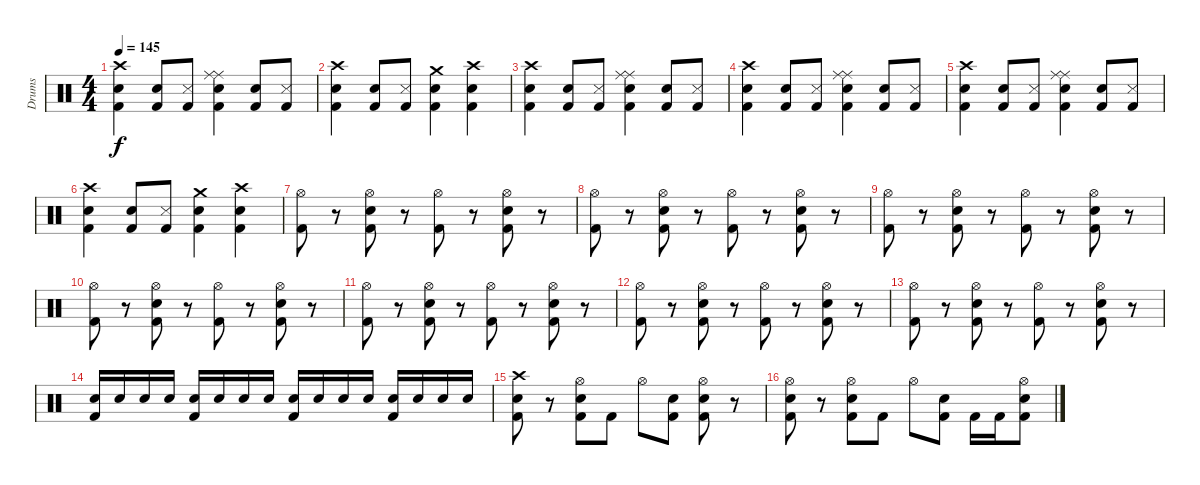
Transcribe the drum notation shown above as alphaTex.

\track ("Drums" "Drums") {instrument percussion}
\staff {score}
\articulation defaults
\ts (4 4)
\tempo 145
\clef neutral
\ks c
("Crash high (hit)" "Snare (hit) 2" "Kick (hit) 2").4{dy f} ("Snare (hit) 2" "Kick (hit) 2").8 ("Snare (side stick) 3" "Kick (hit) 2").8 ("Ride (middle)" "Ride (middle)" "Snare (hit) 2" "Kick (hit) 2").4 ("Snare (hit) 2" "Kick (hit) 2").8 ("Snare (side stick) 3" "Kick (hit) 2").8 |
("Crash high (hit)" "Snare (hit) 2" "Kick (hit) 2").4 ("Snare (hit) 2" "Kick (hit) 2").8 ("Snare (side stick) 3" "Kick (hit) 2").8 ("Crash medium (hit)" "Snare (hit) 2" "Kick (hit) 2").4 ("Crash high (hit)" "Snare (hit) 2" "Kick (hit) 2").4 |
("Crash high (hit)" "Snare (hit) 2" "Kick (hit) 2").4 ("Snare (hit) 2" "Kick (hit) 2").8 ("Snare (side stick) 3" "Kick (hit) 2").8 ("Ride (middle)" "Ride (middle)" "Snare (hit) 2" "Kick (hit) 2").4 ("Snare (hit) 2" "Kick (hit) 2").8 ("Snare (side stick) 3" "Kick (hit) 2").8 |
("Crash high (hit)" "Snare (hit) 2" "Kick (hit) 2").4 ("Snare (hit) 2" "Kick (hit) 2").8 ("Snare (side stick) 3" "Kick (hit) 2").8 ("Ride (middle)" "Ride (middle)" "Snare (hit) 2" "Kick (hit) 2").4 ("Snare (hit) 2" "Kick (hit) 2").8 ("Snare (side stick) 3" "Kick (hit) 2").8 |
("Crash high (hit)" "Snare (hit) 2" "Kick (hit) 2").4 ("Snare (hit) 2" "Kick (hit) 2").8 ("Snare (side stick) 3" "Kick (hit) 2").8 ("Ride (middle)" "Ride (middle)" "Snare (hit) 2" "Kick (hit) 2").4 ("Snare (hit) 2" "Kick (hit) 2").8 ("Snare (side stick) 3" "Kick (hit) 2").8 |
("Crash high (hit)" "Snare (hit) 2" "Kick (hit) 2").4 ("Snare (hit) 2" "Kick (hit) 2").8 ("Snare (side stick) 3" "Kick (hit) 2").8 ("Crash medium (hit)" "Snare (hit) 2" "Kick (hit) 2").4 ("Crash high (hit)" "Snare (hit) 2" "Kick (hit) 2").4 |
("Hi-Hat (open)" "Kick (hit) 2").8 r.8 ("Snare (hit) 2" "Hi-Hat (open)" "Kick (hit) 2").8 r.8 ("Hi-Hat (open)" "Kick (hit) 2").8 r.8 ("Snare (hit) 2" "Hi-Hat (open)" "Kick (hit) 2").8 r.8 |
("Hi-Hat (open)" "Kick (hit) 2").8 r.8 ("Snare (hit) 2" "Hi-Hat (open)" "Kick (hit) 2").8 r.8 ("Hi-Hat (open)" "Kick (hit) 2").8 r.8 ("Snare (hit) 2" "Hi-Hat (open)" "Kick (hit) 2").8 r.8 |
("Hi-Hat (open)" "Kick (hit) 2").8 r.8 ("Snare (hit) 2" "Hi-Hat (open)" "Kick (hit) 2").8 r.8 ("Hi-Hat (open)" "Kick (hit) 2").8 r.8 ("Snare (hit) 2" "Hi-Hat (open)" "Kick (hit) 2").8 r.8 |
("Hi-Hat (open)" "Kick (hit) 2").8 r.8 ("Snare (hit) 2" "Hi-Hat (open)" "Kick (hit) 2").8 r.8 ("Hi-Hat (open)" "Kick (hit) 2").8 r.8 ("Snare (hit) 2" "Hi-Hat (open)" "Kick (hit) 2").8 r.8 |
("Hi-Hat (open)" "Kick (hit) 2").8 r.8 ("Snare (hit) 2" "Hi-Hat (open)" "Kick (hit) 2").8 r.8 ("Hi-Hat (open)" "Kick (hit) 2").8 r.8 ("Snare (hit) 2" "Hi-Hat (open)" "Kick (hit) 2").8 r.8 |
("Hi-Hat (open)" "Kick (hit) 2").8 r.8 ("Snare (hit) 2" "Hi-Hat (open)" "Kick (hit) 2").8 r.8 ("Hi-Hat (open)" "Kick (hit) 2").8 r.8 ("Snare (hit) 2" "Hi-Hat (open)" "Kick (hit) 2").8 r.8 |
("Hi-Hat (open)" "Kick (hit) 2").8 r.8 ("Snare (hit) 2" "Hi-Hat (open)" "Kick (hit) 2").8 r.8 ("Hi-Hat (open)" "Kick (hit) 2").8 r.8 ("Snare (hit) 2" "Hi-Hat (open)" "Kick (hit) 2").8 r.8 |
("Electric Snare (hit)" "Kick (hit) 2").16 "Electric Snare (hit)".16 "Snare (hit) 2".16 "Snare (hit) 2".16 ("Electric Snare (hit)" "Kick (hit) 2").16 "Electric Snare (hit)".16 "Snare (hit) 2".16 "Snare (hit) 2".16 ("Electric Snare (hit)" "Kick (hit) 2").16 "Electric Snare (hit)".16 "Snare (hit) 2".16 "Snare (hit) 2".16 ("Electric Snare (hit)" "Kick (hit) 2").16 "Electric Snare (hit)".16 "Snare (hit) 2".16 "Snare (hit) 2".16 |
("Crash high (hit)" "Snare (hit) 2" "Kick (hit) 2").8 r.8 ("Snare (hit) 2" "Hi-Hat (open)" "Kick (hit) 2").8 "Kick (hit) 2".8 "Hi-Hat (open)".8 ("Snare (hit) 2" "Kick (hit) 2").8 ("Snare (hit) 2" "Hi-Hat (open)" "Kick (hit) 2").8 r.8 |
("Hi-Hat (open)" "Snare (hit) 2" "Kick (hit) 2").8 r.8 ("Snare (hit) 2" "Hi-Hat (open)" "Kick (hit) 2").8 "Kick (hit) 2".8 "Hi-Hat (open)".8 ("Snare (hit) 2" "Kick (hit) 2").8 "Kick (hit) 2".16 "Kick (hit) 2".16 ("Hi-Hat (open)" "Snare (hit) 2" "Kick (hit) 2").8
